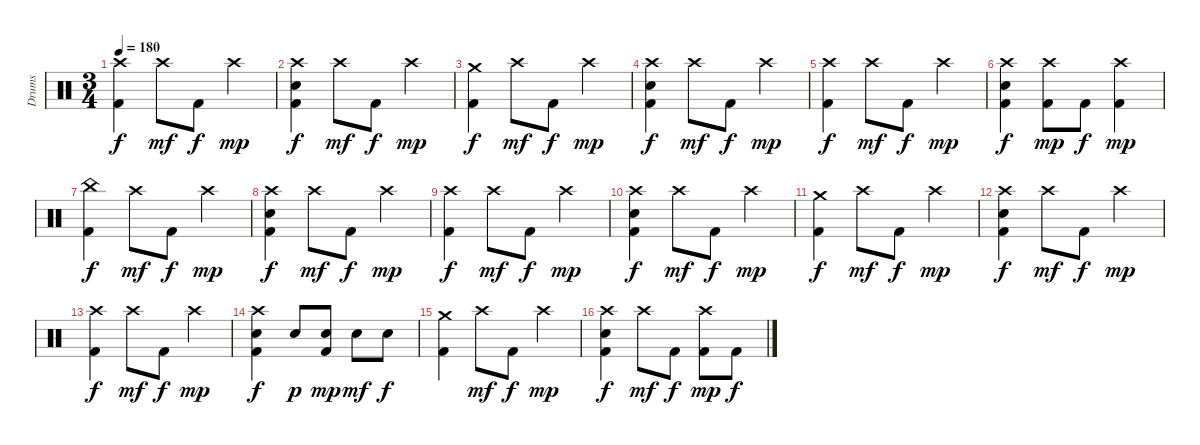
\track ("Drums" "Drums") {instrument percussion}
\staff {score}
\articulation defaults
\ts (3 4)
\tempo 180
\clef neutral
\ks c
("Crash high (hit)" "Kick (hit) 2").4{dy f} "Crash high (hit)".8{dy mf} "Kick (hit) 2".8{dy f} "Crash high (hit)".4{dy mp} |
("Crash high (hit)" "Electric Snare (hit)" "Kick (hit) 2").4{dy f} "Crash high (hit)".8{dy mf} "Kick (hit) 2".8{dy f} "Crash high (hit)".4{dy mp} |
("Crash medium (hit)" "Kick (hit) 2").4{dy f} "Crash high (hit)".8{dy mf} "Kick (hit) 2".8{dy f} "Crash high (hit)".4{dy mp} |
("Crash high (hit)" "Electric Snare (hit)" "Kick (hit) 2").4{dy f} "Crash high (hit)".8{dy mf} "Kick (hit) 2".8{dy f} "Crash high (hit)".4{dy mp} |
("Crash high (hit)" "Kick (hit) 2").4{dy f} "Crash high (hit)".8{dy mf} "Kick (hit) 2".8{dy f} "Crash high (hit)".4{dy mp} |
("Crash high (hit)" "Electric Snare (hit)" "Kick (hit) 2").4{dy f} ("Crash high (hit)" "Kick (hit) 2").8{dy mp} "Kick (hit) 2".8{dy f} ("Crash high (hit)" "Kick (hit) 2").4{dy mp} |
("China (hit)" "Kick (hit) 2").4{dy f} "Crash high (hit)".8{dy mf} "Kick (hit) 2".8{dy f} "Crash high (hit)".4{dy mp} |
("Crash high (hit)" "Electric Snare (hit)" "Kick (hit) 2").4{dy f} "Crash high (hit)".8{dy mf} "Kick (hit) 2".8{dy f} "Crash high (hit)".4{dy mp} |
("Crash high (hit)" "Kick (hit) 2").4{dy f} "Crash high (hit)".8{dy mf} "Kick (hit) 2".8{dy f} "Crash high (hit)".4{dy mp} |
("Crash high (hit)" "Electric Snare (hit)" "Kick (hit) 2").4{dy f} "Crash high (hit)".8{dy mf} "Kick (hit) 2".8{dy f} "Crash high (hit)".4{dy mp} |
("Crash medium (hit)" "Kick (hit) 2").4{dy f} "Crash high (hit)".8{dy mf} "Kick (hit) 2".8{dy f} "Crash high (hit)".4{dy mp} |
("Crash high (hit)" "Electric Snare (hit)" "Kick (hit) 2").4{dy f} "Crash high (hit)".8{dy mf} "Kick (hit) 2".8{dy f} "Crash high (hit)".4{dy mp} |
("Crash high (hit)" "Kick (hit) 2").4{dy f} "Crash high (hit)".8{dy mf} "Kick (hit) 2".8{dy f} "Crash high (hit)".4{dy mp} |
("Crash high (hit)" "Electric Snare (hit)" "Kick (hit) 2").4{dy f} "Electric Snare (hit)".8{dy p} ("Electric Snare (hit)" "Kick (hit) 2").8{dy mp} "Electric Snare (hit)".8{dy mf} "Electric Snare (hit)".8{dy f} |
("Crash medium (hit)" "Kick (hit) 2").4 "Crash high (hit)".8{dy mf} "Kick (hit) 2".8{dy f} "Crash high (hit)".4{dy mp} |
("Crash high (hit)" "Electric Snare (hit)" "Kick (hit) 2").4{dy f} "Crash high (hit)".8{dy mf} "Kick (hit) 2".8{dy f} ("Crash high (hit)" "Kick (hit) 2").8{dy mp} "Kick (hit) 2".8{dy f}
